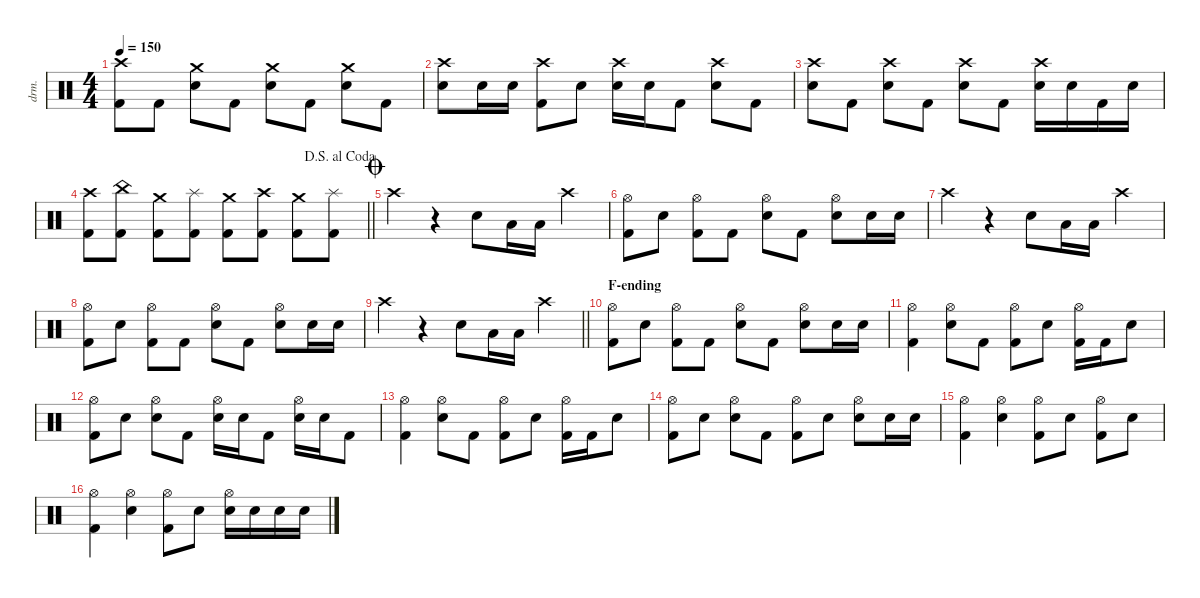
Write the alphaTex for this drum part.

\defaultSystemsLayout 4
\hideDynamics
\bracketExtendMode nobrackets
\otherSystemsTrackNameOrientation horizontal
\track ("Drum" "drm.") {instrument percussion}
\staff {score}
\articulation defaults
\ts (4 4)
\tempo 150
\clef neutral
\ks c
("Crash high (hit)" "Kick (hit) 2").8{dy f beam Down} "Kick (hit) 2".8{dy ff beam Down} ("Crash medium (hit)" "Snare (hit) 2").8{dy f beam Down} "Kick (hit) 2".8{dy ff beam Down} ("Crash medium (hit)" "Snare (hit) 2").8{dy f beam Down} "Kick (hit) 2".8{dy ff beam Down} ("Crash medium (hit)" "Snare (hit) 2").8{dy f beam Down} "Kick (hit) 2".8{dy ff beam Down} |
("Crash high (hit)" "Snare (hit) 2").8{dy f beam Down} "Snare (hit) 2".16{beam Down} "Snare (hit) 2".16{beam Down} ("Crash high (hit)" "Kick (hit) 2").8{beam Down} "Snare (hit) 2".8{beam Down} ("Crash high (hit)" "Snare (hit) 2").16{beam Down} "Snare (hit) 2".16{beam Down} "Kick (hit) 2".8{dy ff beam Down} ("Crash high (hit)" "Snare (hit) 2").8{dy f beam Down} "Kick (hit) 2".8{dy ff beam Down} |
("Crash high (hit)" "Snare (hit) 2").8{dy f beam Down} "Kick (hit) 2".8{dy ff beam Down} ("Crash high (hit)" "Snare (hit) 2").8{dy f beam Down} "Kick (hit) 2".8{dy ff beam Down} ("Crash high (hit)" "Snare (hit) 2").8{dy f beam Down} "Kick (hit) 2".8{dy ff beam Down} ("Crash high (hit)" "Snare (hit) 2").16{dy f beam Down} "Snare (hit) 2".16{dy ff beam Down} "Kick (hit) 2".16{beam Down} "Snare (hit) 2".16{beam Down} |
\jump dalsegnoalcoda
\barLineRight lightlight
("Crash high (hit)" "Kick (hit) 2").8{beam Down} ("China (hit)" "Kick (hit) 2").8{beam Down} ("Crash medium (hit)" "Kick (hit) 2").8{beam Down} ("Splash (hit)" "Kick (hit) 2").8{beam Down} ("Crash medium (hit)" "Kick (hit) 2").8{beam Down} ("Crash high (hit)" "Kick (hit) 2").8{beam Down} ("Crash medium (hit)" "Kick (hit) 2").8{beam Down} ("Splash (hit)" "Kick (hit) 2").8{beam Down} |
\jump coda "Crash high (hit)".4{beam Down}
r.4{beam Down} "Snare (hit) 2".8{beam Down} "Low Tom (hit)".16{beam Down} "Low Tom (hit)".16{beam Down} "Crash high (hit)".4{beam Down} |
("Hi-Hat (open)" "Kick (hit) 2").8{beam Down} "Snare (hit) 2".8{beam Down} ("Hi-Hat (open)" "Kick (hit) 2").8{beam Down} "Kick (hit) 2".8{beam Down} ("Hi-Hat (open)" "Snare (hit) 2").8{beam Down} "Kick (hit) 2".8{beam Down} ("Hi-Hat (open)" "Snare (hit) 2").8{beam Down} "Snare (hit) 2".16{beam Down} "Snare (hit) 2".16{beam Down} |
"Crash high (hit)".4{beam Down} r.4{beam Down} "Snare (hit) 2".8{beam Down} "Low Tom (hit)".16{beam Down} "Low Tom (hit)".16{beam Down} "Crash high (hit)".4{beam Down} |
("Hi-Hat (open)" "Kick (hit) 2").8{beam Down} "Snare (hit) 2".8{beam Down} ("Hi-Hat (open)" "Kick (hit) 2").8{beam Down} "Kick (hit) 2".8{beam Down} ("Hi-Hat (open)" "Snare (hit) 2").8{beam Down} "Kick (hit) 2".8{beam Down} ("Hi-Hat (open)" "Snare (hit) 2").8{beam Down} "Snare (hit) 2".16{beam Down} "Snare (hit) 2".16{beam Down} |
\barLineRight lightlight "Crash high (hit)".4{beam Down}
r.4{beam Down} "Snare (hit) 2".8{beam Down} "Low Tom (hit)".16{beam Down} "Low Tom (hit)".16{beam Down} "Crash high (hit)".4{beam Down} |
\section ("" "F-ending")
("Hi-Hat (open)" "Kick (hit) 2").8{beam Down} "Snare (hit) 2".8{beam Down} ("Hi-Hat (open)" "Kick (hit) 2").8{beam Down} "Kick (hit) 2".8{beam Down} ("Hi-Hat (open)" "Snare (hit) 2").8{beam Down} "Kick (hit) 2".8{beam Down} ("Hi-Hat (open)" "Snare (hit) 2").8{beam Down} "Snare (hit) 2".16{beam Down} "Snare (hit) 2".16{beam Down} |
("Hi-Hat (open)" "Kick (hit) 2").4{dy f beam Down} ("Hi-Hat (open)" "Snare (hit) 2").8{beam Down} "Kick (hit) 2".8{beam Down} ("Hi-Hat (open)" "Kick (hit) 2").8{beam Down} "Snare (hit) 2".8{beam Down} ("Hi-Hat (open)" "Kick (hit) 2").16{beam Down} "Kick (hit) 2".16{beam Down} "Snare (hit) 2".8{beam Down} |
("Hi-Hat (open)" "Kick (hit) 2").8{beam Down} "Snare (hit) 2".8{beam Down} ("Hi-Hat (open)" "Snare (hit) 2").8{beam Down} "Kick (hit) 2".8{beam Down} ("Hi-Hat (open)" "Snare (hit) 2").16{beam Down} "Snare (hit) 2".16{beam Down} "Kick (hit) 2".8{beam Down} ("Hi-Hat (open)" "Snare (hit) 2").16{beam Down} "Snare (hit) 2".16{beam Down} "Kick (hit) 2".8{beam Down} |
("Hi-Hat (open)" "Kick (hit) 2").4{beam Down} ("Hi-Hat (open)" "Snare (hit) 2").8{beam Down} "Kick (hit) 2".8{beam Down} ("Hi-Hat (open)" "Kick (hit) 2").8{beam Down} "Snare (hit) 2".8{beam Down} ("Hi-Hat (open)" "Kick (hit) 2").16{beam Down} "Kick (hit) 2".16{beam Down} "Snare (hit) 2".8{beam Down} |
("Hi-Hat (open)" "Kick (hit) 2").8{beam Down} "Snare (hit) 2".8{beam Down} ("Hi-Hat (open)" "Snare (hit) 2").8{beam Down} "Kick (hit) 2".8{beam Down} ("Hi-Hat (open)" "Kick (hit) 2").8{beam Down} "Snare (hit) 2".8{beam Down} ("Hi-Hat (open)" "Snare (hit) 2").8{beam Down} "Snare (hit) 2".16{beam Down} "Snare (hit) 2".16{beam Down} |
("Hi-Hat (open)" "Kick (hit) 2").4{beam Down} ("Hi-Hat (open)" "Snare (hit) 2").4{beam Down} ("Hi-Hat (open)" "Kick (hit) 2").8{beam Down} "Snare (hit) 2".8{beam Down} ("Hi-Hat (open)" "Kick (hit) 2").8{beam Down} "Snare (hit) 2".8{beam Down} |
("Hi-Hat (open)" "Kick (hit) 2").4{beam Down} ("Hi-Hat (open)" "Snare (hit) 2").4{beam Down} ("Hi-Hat (open)" "Kick (hit) 2").8{beam Down} "Snare (hit) 2".8{beam Down} ("Hi-Hat (open)" "Snare (hit) 2").16{beam Down} "Snare (hit) 2".16{beam Down} "Snare (hit) 2".16{beam Down} "Snare (hit) 2".16{beam Down}
